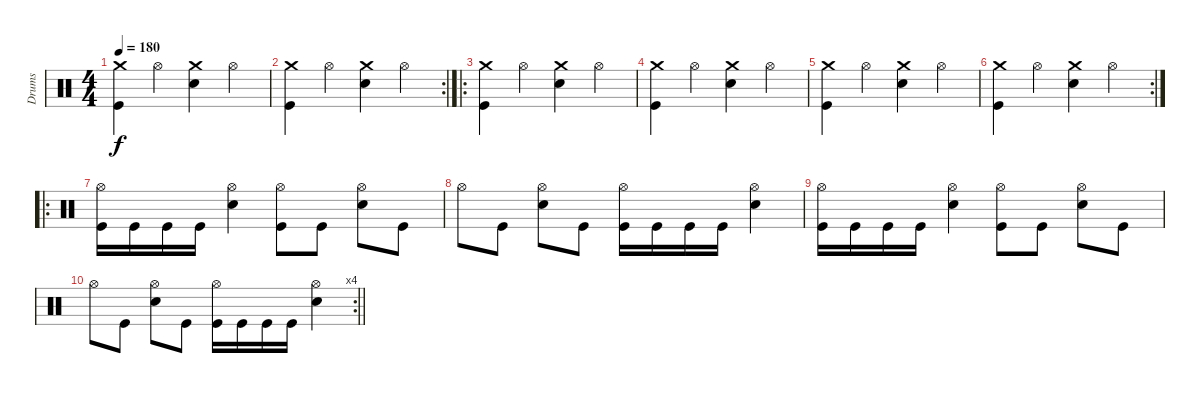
\track ("Drums" "Drums") {instrument percussion}
\staff {score}
\articulation defaults
\ts (4 4)
\tempo 180
\clef neutral
\ks c
("Crash medium (hit)" "Kick (hit)").4{dy f} "Hi-Hat (open)".4 ("Crash medium (hit)" "Snare (hit) 2").4 "Hi-Hat (open)".4 |
\rc 2
("Crash medium (hit)" "Kick (hit)").4 "Hi-Hat (open)".4 ("Crash medium (hit)" "Snare (hit) 2").4 "Hi-Hat (open)".4 |
\ro
("Crash medium (hit)" "Kick (hit)").4 "Hi-Hat (open)".4 ("Crash medium (hit)" "Snare (hit) 2").4 "Hi-Hat (open)".4 |
("Crash medium (hit)" "Kick (hit)").4 "Hi-Hat (open)".4 ("Crash medium (hit)" "Snare (hit) 2").4 "Hi-Hat (open)".4 |
("Crash medium (hit)" "Kick (hit)").4 "Hi-Hat (open)".4 ("Crash medium (hit)" "Snare (hit) 2").4 "Hi-Hat (open)".4 |
\rc 2
("Crash medium (hit)" "Kick (hit)").4 "Hi-Hat (open)".4 ("Crash medium (hit)" "Snare (hit) 2").4 "Hi-Hat (open)".4 |
\ro
("Hi-Hat (open)" "Kick (hit)").16 "Kick (hit)".16 "Kick (hit)".16 "Kick (hit)".16 ("Hi-Hat (open)" "Snare (hit) 2").4 ("Hi-Hat (open)" "Kick (hit)").8 "Kick (hit)".8 ("Hi-Hat (open)" "Snare (hit) 2").8 "Kick (hit)".8 |
"Hi-Hat (open)".8 "Kick (hit)".8 ("Hi-Hat (open)" "Snare (hit) 2").8 "Kick (hit)".8 ("Hi-Hat (open)" "Kick (hit)").16 "Kick (hit)".16 "Kick (hit)".16 "Kick (hit)".16 ("Hi-Hat (open)" "Snare (hit) 2").4 |
("Hi-Hat (open)" "Kick (hit)").16 "Kick (hit)".16 "Kick (hit)".16 "Kick (hit)".16 ("Hi-Hat (open)" "Snare (hit) 2").4 ("Hi-Hat (open)" "Kick (hit)").8 "Kick (hit)".8 ("Hi-Hat (open)" "Snare (hit) 2").8 "Kick (hit)".8 |
\rc 4
\barLineRight lightlight "Hi-Hat (open)".8 "Kick (hit)".8
("Hi-Hat (open)" "Snare (hit) 2").8 "Kick (hit)".8 ("Hi-Hat (open)" "Kick (hit)").16 "Kick (hit)".16 "Kick (hit)".16 "Kick (hit)".16 ("Hi-Hat (open)" "Snare (hit) 2").4
